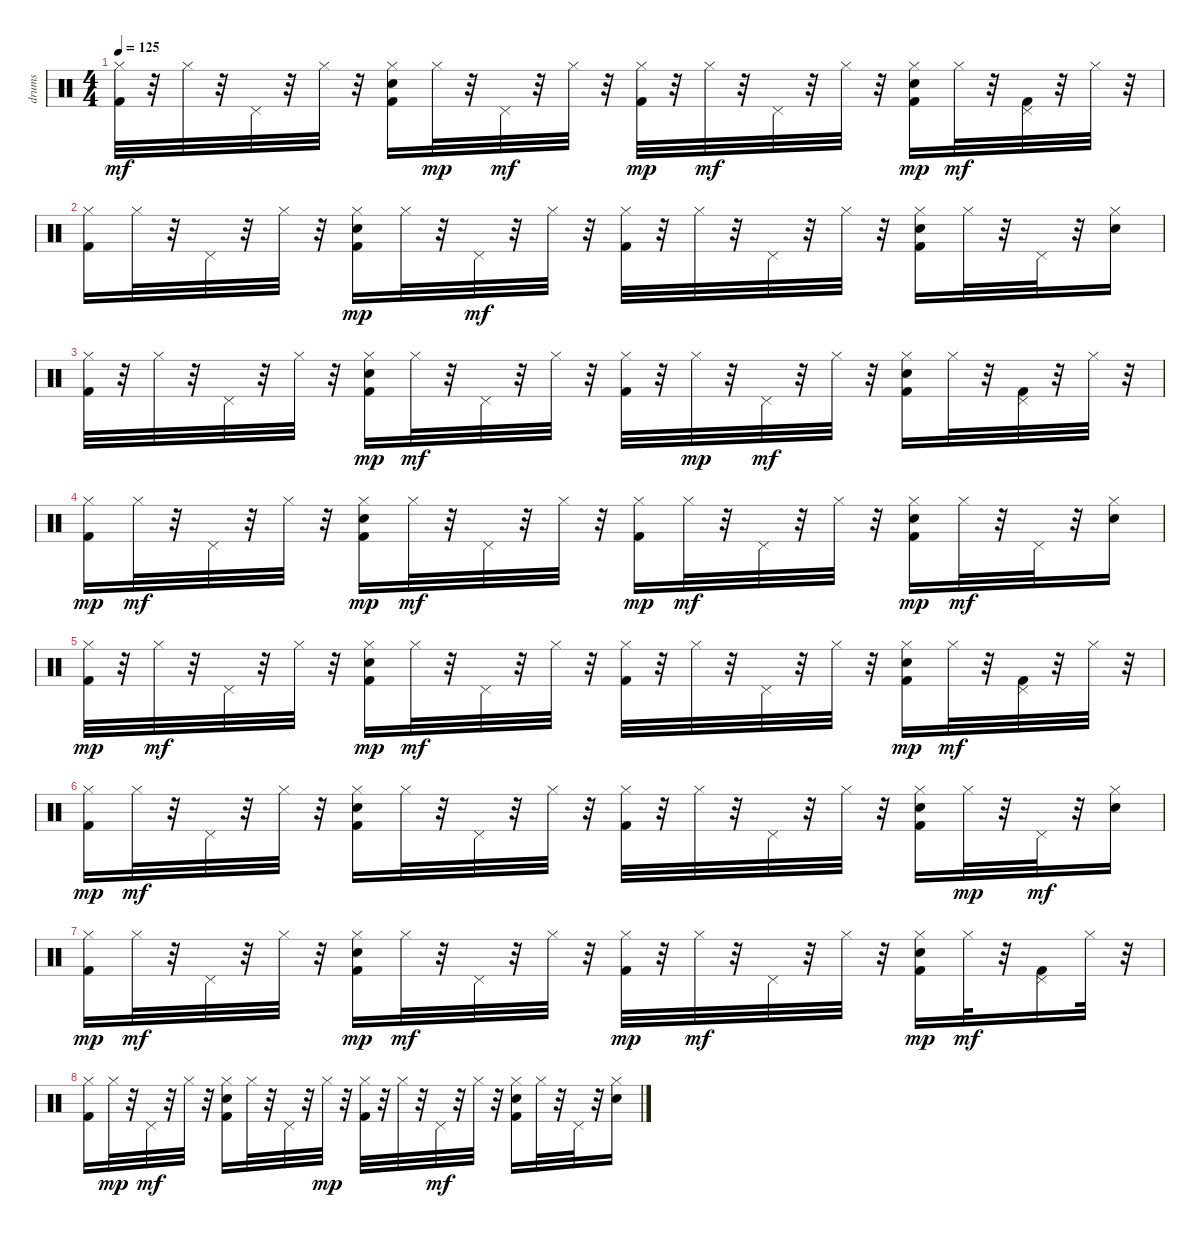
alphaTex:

\track ("drums   " "drums   ") {instrument percussion}
\staff {score}
\articulation defaults
\ts (4 4)
\tempo 125
\clef neutral
\ks c
("Kick (hit) 2" "Hi-Hat (closed)").32{dy mf} r.32 "Hi-Hat (closed)".32 r.32 "Pedal Hi-Hat (hit)".32 r.32 "Hi-Hat (closed)".32 r.32 ("Kick (hit) 2" "Snare (hit) 2" "Hi-Hat (closed)").16 "Hi-Hat (closed)".32{dy mp} r.32 "Pedal Hi-Hat (hit)".32{dy mf} r.32 "Hi-Hat (closed)".32 r.32 ("Kick (hit) 2" "Hi-Hat (closed)").32{dy mp} r.32 "Hi-Hat (closed)".32{dy mf} r.32 "Pedal Hi-Hat (hit)".32 r.32 "Hi-Hat (closed)".32 r.32 ("Kick (hit) 2" "Snare (hit) 2" "Hi-Hat (closed)").16{dy mp} "Hi-Hat (closed)".32{dy mf} r.32 ("Kick (hit) 2" "Pedal Hi-Hat (hit)").32 r.32 "Hi-Hat (closed)".32 r.32 |
("Kick (hit) 2" "Hi-Hat (closed)").16 "Hi-Hat (closed)".32 r.32 "Pedal Hi-Hat (hit)".32 r.32 "Hi-Hat (closed)".32 r.32 ("Kick (hit) 2" "Snare (hit) 2" "Hi-Hat (closed)").16{dy mp} "Hi-Hat (closed)".32 r.32 "Pedal Hi-Hat (hit)".32{dy mf} r.32 "Hi-Hat (closed)".32 r.32 ("Kick (hit) 2" "Hi-Hat (closed)").32 r.32 "Hi-Hat (closed)".32 r.32 "Pedal Hi-Hat (hit)".32 r.32 "Hi-Hat (closed)".32 r.32 ("Kick (hit) 2" "Snare (hit) 2" "Hi-Hat (closed)").16 "Hi-Hat (closed)".32 r.32 "Pedal Hi-Hat (hit)".32 r.32 ("Snare (hit) 2" "Hi-Hat (closed)").16 |
("Kick (hit) 2" "Hi-Hat (closed)").32 r.32 "Hi-Hat (closed)".32 r.32 "Pedal Hi-Hat (hit)".32 r.32 "Hi-Hat (closed)".32 r.32 ("Kick (hit) 2" "Snare (hit) 2" "Hi-Hat (closed)").16{dy mp} "Hi-Hat (closed)".32{dy mf} r.32 "Pedal Hi-Hat (hit)".32 r.32 "Hi-Hat (closed)".32 r.32 ("Kick (hit) 2" "Hi-Hat (closed)").32 r.32 "Hi-Hat (closed)".32{dy mp} r.32 "Pedal Hi-Hat (hit)".32{dy mf} r.32 "Hi-Hat (closed)".32 r.32 ("Kick (hit) 2" "Snare (hit) 2" "Hi-Hat (closed)").16 "Hi-Hat (closed)".32 r.32 ("Kick (hit) 2" "Pedal Hi-Hat (hit)").32 r.32 "Hi-Hat (closed)".32 r.32 |
("Kick (hit) 2" "Hi-Hat (closed)").16{dy mp} "Hi-Hat (closed)".32{dy mf} r.32 "Pedal Hi-Hat (hit)".32 r.32 "Hi-Hat (closed)".32 r.32 ("Kick (hit) 2" "Snare (hit) 2" "Hi-Hat (closed)").16{dy mp} "Hi-Hat (closed)".32{dy mf} r.32 "Pedal Hi-Hat (hit)".32 r.32 "Hi-Hat (closed)".32 r.32 ("Kick (hit) 2" "Hi-Hat (closed)").16{dy mp} "Hi-Hat (closed)".32{dy mf} r.32 "Pedal Hi-Hat (hit)".32 r.32 "Hi-Hat (closed)".32 r.32 ("Kick (hit) 2" "Snare (hit) 2" "Hi-Hat (closed)").16{dy mp} "Hi-Hat (closed)".32{dy mf} r.32 "Pedal Hi-Hat (hit)".32 r.32 ("Snare (hit) 2" "Hi-Hat (closed)").16 |
("Kick (hit) 2" "Hi-Hat (closed)").32{dy mp} r.32 "Hi-Hat (closed)".32{dy mf} r.32 "Pedal Hi-Hat (hit)".32 r.32 "Hi-Hat (closed)".32 r.32 ("Kick (hit) 2" "Snare (hit) 2" "Hi-Hat (closed)").16{dy mp} "Hi-Hat (closed)".32{dy mf} r.32 "Pedal Hi-Hat (hit)".32 r.32 "Hi-Hat (closed)".32 r.32 ("Kick (hit) 2" "Hi-Hat (closed)").32 r.32 "Hi-Hat (closed)".32 r.32 "Pedal Hi-Hat (hit)".32 r.32 "Hi-Hat (closed)".32 r.32 ("Kick (hit) 2" "Snare (hit) 2" "Hi-Hat (closed)").16{dy mp} "Hi-Hat (closed)".32{dy mf} r.32 ("Kick (hit) 2" "Pedal Hi-Hat (hit)").32 r.32 "Hi-Hat (closed)".32 r.32 |
("Kick (hit) 2" "Hi-Hat (closed)").16{dy mp} "Hi-Hat (closed)".32{dy mf} r.32 "Pedal Hi-Hat (hit)".32 r.32 "Hi-Hat (closed)".32 r.32 ("Kick (hit) 2" "Snare (hit) 2" "Hi-Hat (closed)").16 "Hi-Hat (closed)".32 r.32 "Pedal Hi-Hat (hit)".32 r.32 "Hi-Hat (closed)".32 r.32 ("Kick (hit) 2" "Hi-Hat (closed)").32 r.32 "Hi-Hat (closed)".32 r.32 "Pedal Hi-Hat (hit)".32 r.32 "Hi-Hat (closed)".32 r.32 ("Kick (hit) 2" "Snare (hit) 2" "Hi-Hat (closed)").16 "Hi-Hat (closed)".32{dy mp} r.32 "Pedal Hi-Hat (hit)".32{dy mf} r.32 ("Snare (hit) 2" "Hi-Hat (closed)").16 |
("Kick (hit) 2" "Hi-Hat (closed)").16{dy mp} "Hi-Hat (closed)".32{dy mf} r.32 "Pedal Hi-Hat (hit)".32 r.32 "Hi-Hat (closed)".32 r.32 ("Kick (hit) 2" "Snare (hit) 2" "Hi-Hat (closed)").16{dy mp} "Hi-Hat (closed)".32{dy mf} r.32 "Pedal Hi-Hat (hit)".32 r.32 "Hi-Hat (closed)".32 r.32 ("Kick (hit) 2" "Hi-Hat (closed)").32{dy mp} r.32 "Hi-Hat (closed)".32{dy mf} r.32 "Pedal Hi-Hat (hit)".32 r.32 "Hi-Hat (closed)".32 r.32 ("Kick (hit) 2" "Snare (hit) 2" "Hi-Hat (closed)").16{dy mp} "Hi-Hat (closed)".32{dy mf} r.32 ("Kick (hit) 2" "Pedal Hi-Hat (hit)").16 "Hi-Hat (closed)".32 r.32 |
("Kick (hit) 2" "Hi-Hat (closed)").16 "Hi-Hat (closed)".32{dy mp} r.32 "Pedal Hi-Hat (hit)".32{dy mf} r.32 "Hi-Hat (closed)".32 r.32 ("Kick (hit) 2" "Snare (hit) 2" "Hi-Hat (closed)").16 "Hi-Hat (closed)".32 r.32 "Pedal Hi-Hat (hit)".32 r.32 "Hi-Hat (closed)".32{dy mp} r.32 ("Kick (hit) 2" "Hi-Hat (closed)").32 r.32 "Hi-Hat (closed)".32 r.32 "Pedal Hi-Hat (hit)".32{dy mf} r.32 "Hi-Hat (closed)".32 r.32 ("Kick (hit) 2" "Snare (hit) 2" "Hi-Hat (closed)").16 "Hi-Hat (closed)".32 r.32 "Pedal Hi-Hat (hit)".32 r.32 ("Snare (hit) 2" "Hi-Hat (closed)").16
